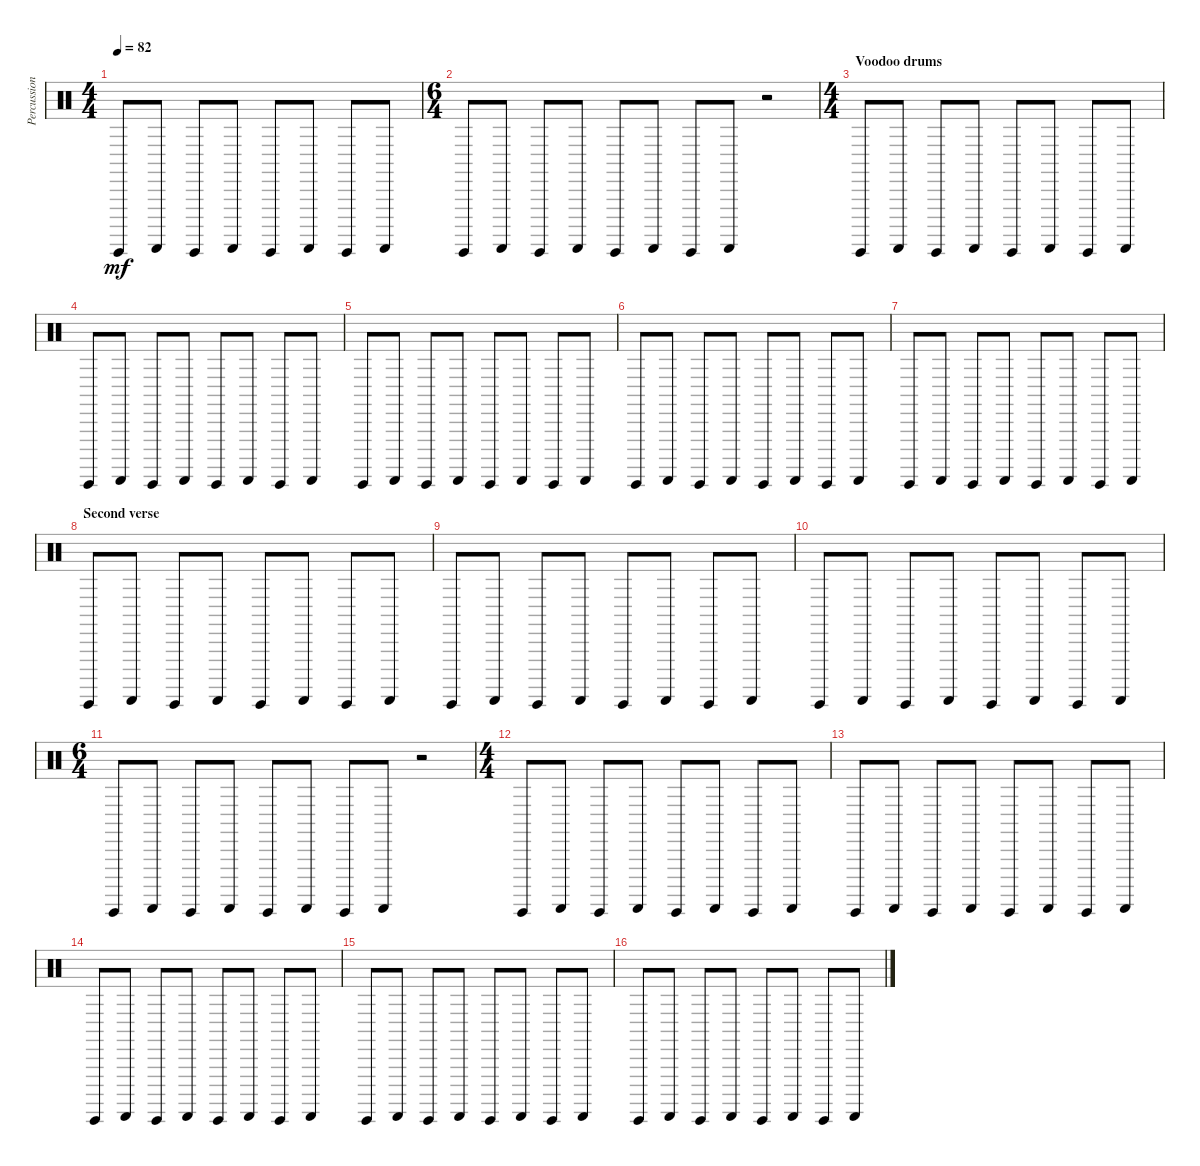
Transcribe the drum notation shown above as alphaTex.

\track ("Percussion/Effects" "Percussion") {instrument percussion}
\staff {score}
\articulation defaults
\ts (4 4)
\tempo 82
\clef neutral
\ks c "Guiro (hit)".8{dy mf} "Guiro (scrap-return)".8 "Guiro (hit)".8 "Guiro (scrap-return)".8 "Guiro (hit)".8 "Guiro (scrap-return)".8 "Guiro (hit)".8 "Guiro (scrap-return)".8
|
\ts (6 4)
"Guiro (hit)".8 "Guiro (scrap-return)".8 "Guiro (hit)".8 "Guiro (scrap-return)".8 "Guiro (hit)".8 "Guiro (scrap-return)".8 "Guiro (hit)".8 "Guiro (scrap-return)".8 r.2 |
\ts (4 4)
\section ("" "Voodoo drums")
"Guiro (hit)".8 "Guiro (scrap-return)".8 "Guiro (hit)".8 "Guiro (scrap-return)".8 "Guiro (hit)".8 "Guiro (scrap-return)".8 "Guiro (hit)".8 "Guiro (scrap-return)".8 |
"Guiro (hit)".8 "Guiro (scrap-return)".8 "Guiro (hit)".8 "Guiro (scrap-return)".8 "Guiro (hit)".8 "Guiro (scrap-return)".8 "Guiro (hit)".8 "Guiro (scrap-return)".8 |
"Guiro (hit)".8 "Guiro (scrap-return)".8 "Guiro (hit)".8 "Guiro (scrap-return)".8 "Guiro (hit)".8 "Guiro (scrap-return)".8 "Guiro (hit)".8 "Guiro (scrap-return)".8 |
"Guiro (hit)".8 "Guiro (scrap-return)".8 "Guiro (hit)".8 "Guiro (scrap-return)".8 "Guiro (hit)".8 "Guiro (scrap-return)".8 "Guiro (hit)".8 "Guiro (scrap-return)".8 |
"Guiro (hit)".8 "Guiro (scrap-return)".8 "Guiro (hit)".8 "Guiro (scrap-return)".8 "Guiro (hit)".8 "Guiro (scrap-return)".8 "Guiro (hit)".8 "Guiro (scrap-return)".8 |
\section ("" "Second verse")
"Guiro (hit)".8 "Guiro (scrap-return)".8 "Guiro (hit)".8 "Guiro (scrap-return)".8 "Guiro (hit)".8 "Guiro (scrap-return)".8 "Guiro (hit)".8 "Guiro (scrap-return)".8 |
"Guiro (hit)".8 "Guiro (scrap-return)".8 "Guiro (hit)".8 "Guiro (scrap-return)".8 "Guiro (hit)".8 "Guiro (scrap-return)".8 "Guiro (hit)".8 "Guiro (scrap-return)".8 |
"Guiro (hit)".8 "Guiro (scrap-return)".8 "Guiro (hit)".8 "Guiro (scrap-return)".8 "Guiro (hit)".8 "Guiro (scrap-return)".8 "Guiro (hit)".8 "Guiro (scrap-return)".8 |
\ts (6 4)
"Guiro (hit)".8 "Guiro (scrap-return)".8 "Guiro (hit)".8 "Guiro (scrap-return)".8 "Guiro (hit)".8 "Guiro (scrap-return)".8 "Guiro (hit)".8 "Guiro (scrap-return)".8 r.2 |
\ts (4 4)
"Guiro (hit)".8 "Guiro (scrap-return)".8 "Guiro (hit)".8 "Guiro (scrap-return)".8 "Guiro (hit)".8 "Guiro (scrap-return)".8 "Guiro (hit)".8 "Guiro (scrap-return)".8 |
"Guiro (hit)".8 "Guiro (scrap-return)".8 "Guiro (hit)".8 "Guiro (scrap-return)".8 "Guiro (hit)".8 "Guiro (scrap-return)".8 "Guiro (hit)".8 "Guiro (scrap-return)".8 |
"Guiro (hit)".8 "Guiro (scrap-return)".8 "Guiro (hit)".8 "Guiro (scrap-return)".8 "Guiro (hit)".8 "Guiro (scrap-return)".8 "Guiro (hit)".8 "Guiro (scrap-return)".8 |
"Guiro (hit)".8 "Guiro (scrap-return)".8 "Guiro (hit)".8 "Guiro (scrap-return)".8 "Guiro (hit)".8 "Guiro (scrap-return)".8 "Guiro (hit)".8 "Guiro (scrap-return)".8 |
"Guiro (hit)".8 "Guiro (scrap-return)".8 "Guiro (hit)".8 "Guiro (scrap-return)".8 "Guiro (hit)".8 "Guiro (scrap-return)".8 "Guiro (hit)".8 "Guiro (scrap-return)".8
